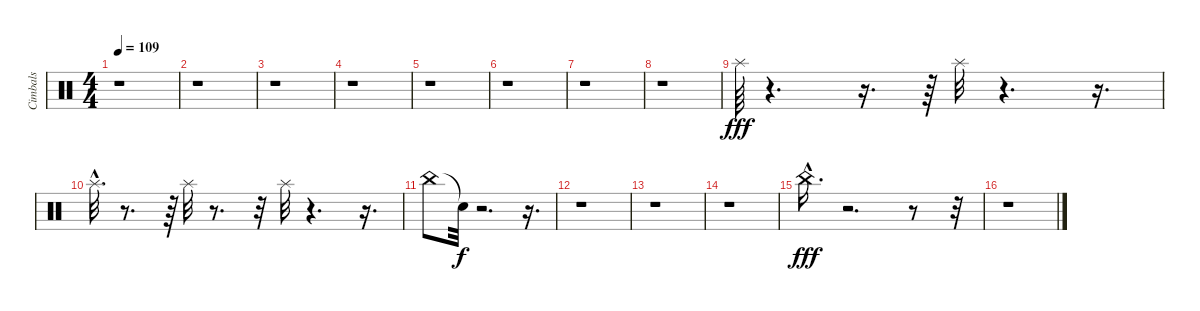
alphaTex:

\track ("Cimbals" "Cimbals") {instrument percussion}
\staff {score}
\articulation defaults
\ts (4 4)
\tempo 109
\clef neutral
\ks c
r.1{dy fff} |
r.1 |
r.1 |
r.1 |
r.1 |
r.1 |
r.1 |
r.1 |
"Splash (hit)".64 r.4{d} r.16{d} r.64 "Splash (hit)".32 r.4{d} r.16{d} |
"Splash (hit)"{hac}.32{d} r.8{d} r.64 "Splash (hit)".32 r.8{d} r.32 "Splash (hit)".32 r.4{d} r.16{d} |
"China (choke)".8 "Snare (hit)"{t}.32{dy f} r.2{d} r.16{d} |
r.1 |
r.1 |
r.1 |
"China (choke)"{hac}.16{d dy fff} r.2{d} r.8 r.32 |
r.1
